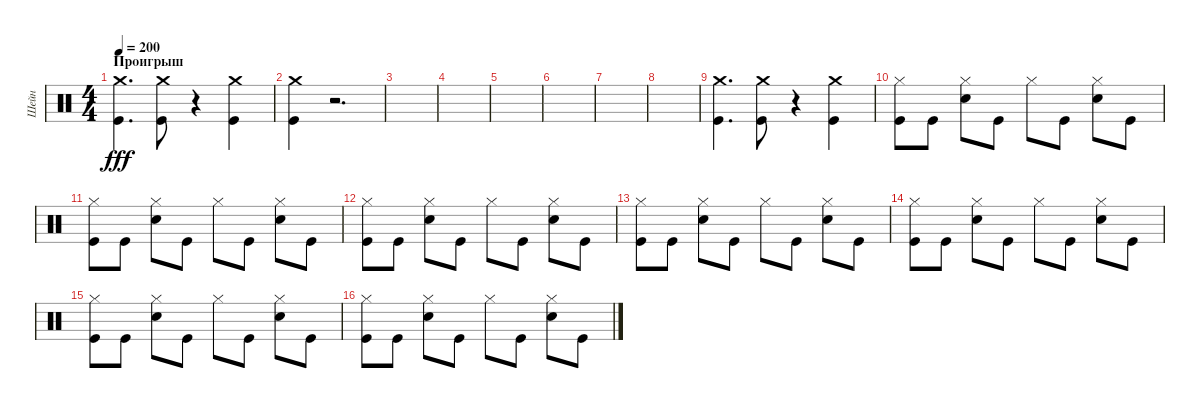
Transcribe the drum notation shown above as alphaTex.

\track ("Шейн" "Шейн") {instrument percussion}
\staff {score}
\articulation defaults
\ts (4 4)
\section ("" "Проигрыш")
\tempo 200
\clef neutral
\ks c
("Kick (hit)" "Crash medium (hit)").4{d dy fff} ("Kick (hit)" "Crash medium (hit)").8 r.4 ("Crash medium (hit)" "Kick (hit)").4 |
("Kick (hit)" "Crash medium (hit)").4 r.2{d} |
|
|
|
|
|
|
("Kick (hit)" "Crash medium (hit)").4{d} ("Kick (hit)" "Crash medium (hit)").8 r.4 ("Crash medium (hit)" "Kick (hit)").4 |
("Kick (hit)" "Hi-Hat (closed)").8 "Kick (hit)".8 ("Snare (hit) 2" "Hi-Hat (closed)").8 "Kick (hit)".8 "Hi-Hat (closed)".8 "Kick (hit)".8 ("Snare (hit) 2" "Hi-Hat (closed)").8 "Kick (hit)".8 |
("Kick (hit)" "Hi-Hat (closed)").8 "Kick (hit)".8 ("Snare (hit) 2" "Hi-Hat (closed)").8 "Kick (hit)".8 "Hi-Hat (closed)".8 "Kick (hit)".8 ("Snare (hit) 2" "Hi-Hat (closed)").8 "Kick (hit)".8 |
("Kick (hit)" "Hi-Hat (closed)").8 "Kick (hit)".8 ("Snare (hit) 2" "Hi-Hat (closed)").8 "Kick (hit)".8 "Hi-Hat (closed)".8 "Kick (hit)".8 ("Snare (hit) 2" "Hi-Hat (closed)").8 "Kick (hit)".8 |
("Kick (hit)" "Hi-Hat (closed)").8 "Kick (hit)".8 ("Snare (hit) 2" "Hi-Hat (closed)").8 "Kick (hit)".8 "Hi-Hat (closed)".8 "Kick (hit)".8 ("Snare (hit) 2" "Hi-Hat (closed)").8 "Kick (hit)".8 |
("Kick (hit)" "Hi-Hat (closed)").8 "Kick (hit)".8 ("Snare (hit) 2" "Hi-Hat (closed)").8 "Kick (hit)".8 "Hi-Hat (closed)".8 "Kick (hit)".8 ("Snare (hit) 2" "Hi-Hat (closed)").8 "Kick (hit)".8 |
("Kick (hit)" "Hi-Hat (closed)").8 "Kick (hit)".8 ("Snare (hit) 2" "Hi-Hat (closed)").8 "Kick (hit)".8 "Hi-Hat (closed)".8 "Kick (hit)".8 ("Snare (hit) 2" "Hi-Hat (closed)").8 "Kick (hit)".8 |
("Kick (hit)" "Hi-Hat (closed)").8 "Kick (hit)".8 ("Snare (hit) 2" "Hi-Hat (closed)").8 "Kick (hit)".8 "Hi-Hat (closed)".8 "Kick (hit)".8 ("Snare (hit) 2" "Hi-Hat (closed)").8 "Kick (hit)".8
